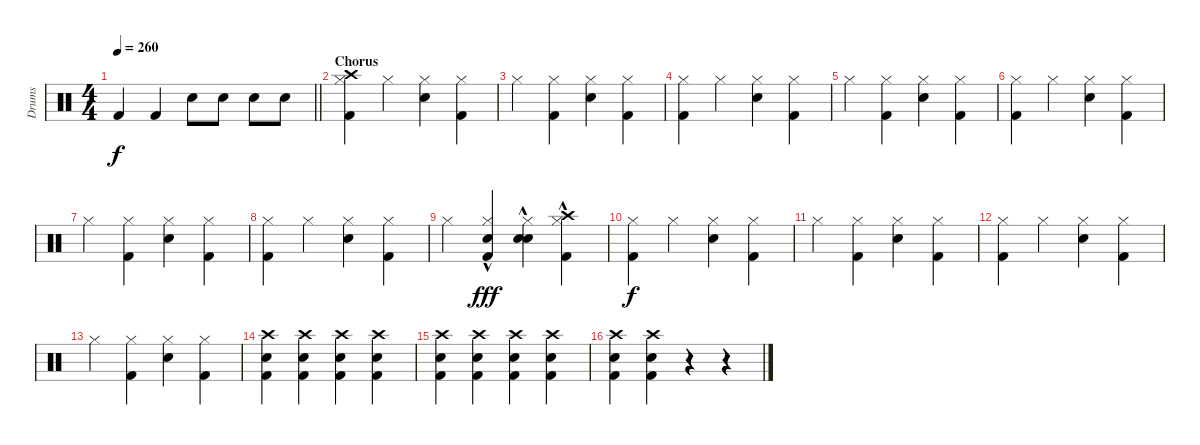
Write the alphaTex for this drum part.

\track ("Drums" "Drums") {instrument percussion bank 2}
\staff {score}
\articulation defaults
\ts (4 4)
\tempo 260
\clef neutral
\barLineRight lightlight
\ks c "Kick (hit) 2".4{dy f} "Kick (hit) 2".4 "Snare (hit) 2".8 "Snare (hit) 2".8 "Snare (hit) 2".8 "Snare (hit) 2".8
|
\section ("" "Chorus")
("Hi-Hat (closed)" "Kick (hit) 2" "Crash high (hit)").4 "Hi-Hat (closed)".4 ("Hi-Hat (closed)" "Snare (hit) 2").4 ("Hi-Hat (closed)" "Kick (hit) 2").4 |
"Hi-Hat (closed)".4 ("Hi-Hat (closed)" "Kick (hit) 2").4 ("Hi-Hat (closed)" "Snare (hit) 2").4 ("Hi-Hat (closed)" "Kick (hit) 2").4 |
("Hi-Hat (closed)" "Kick (hit) 2").4 "Hi-Hat (closed)".4 ("Hi-Hat (closed)" "Snare (hit) 2").4 ("Hi-Hat (closed)" "Kick (hit) 2").4 |
"Hi-Hat (closed)".4 ("Hi-Hat (closed)" "Kick (hit) 2").4 ("Hi-Hat (closed)" "Snare (hit) 2").4 ("Hi-Hat (closed)" "Kick (hit) 2").4 |
("Hi-Hat (closed)" "Kick (hit) 2").4 "Hi-Hat (closed)".4 ("Hi-Hat (closed)" "Snare (hit) 2").4 ("Hi-Hat (closed)" "Kick (hit) 2").4 |
"Hi-Hat (closed)".4 ("Hi-Hat (closed)" "Kick (hit) 2").4 ("Hi-Hat (closed)" "Snare (hit) 2").4 ("Hi-Hat (closed)" "Kick (hit) 2").4 |
("Hi-Hat (closed)" "Kick (hit) 2").4 "Hi-Hat (closed)".4 ("Hi-Hat (closed)" "Snare (hit) 2").4 ("Hi-Hat (closed)" "Kick (hit) 2").4 |
"Hi-Hat (closed)".4 ("Hi-Hat (closed)" "Kick (hit) 2" "Hand Clap (hit)"{hac}).4{dy fff} ("Hi-Hat (closed)" "Snare (hit) 2" "Hand Clap (hit)"{hac}).4 ("Hi-Hat (closed)" "Kick (hit) 2" "Crash high (hit)"{hac}).4 |
("Hi-Hat (closed)" "Kick (hit) 2").4{dy f} "Hi-Hat (closed)".4 ("Hi-Hat (closed)" "Snare (hit) 2").4 ("Hi-Hat (closed)" "Kick (hit) 2").4 |
"Hi-Hat (closed)".4 ("Hi-Hat (closed)" "Kick (hit) 2").4 ("Hi-Hat (closed)" "Snare (hit) 2").4 ("Hi-Hat (closed)" "Kick (hit) 2").4 |
("Hi-Hat (closed)" "Kick (hit) 2").4 "Hi-Hat (closed)".4 ("Hi-Hat (closed)" "Snare (hit) 2").4 ("Hi-Hat (closed)" "Kick (hit) 2").4 |
"Hi-Hat (closed)".4 ("Hi-Hat (closed)" "Kick (hit) 2").4 ("Hi-Hat (closed)" "Snare (hit) 2").4 ("Hi-Hat (closed)" "Kick (hit) 2").4 |
("Kick (hit) 2" "Snare (hit) 2" "Crash high (hit)").4 ("Kick (hit) 2" "Snare (hit) 2" "Crash high (hit)").4 ("Kick (hit) 2" "Snare (hit) 2" "Crash high (hit)").4 ("Kick (hit) 2" "Snare (hit) 2" "Crash high (hit)").4 |
("Kick (hit) 2" "Snare (hit) 2" "Crash high (hit)").4 ("Kick (hit) 2" "Snare (hit) 2" "Crash high (hit)").4 ("Kick (hit) 2" "Snare (hit) 2" "Crash high (hit)").4 ("Kick (hit) 2" "Snare (hit) 2" "Crash high (hit)").4 |
("Kick (hit) 2" "Crash high (hit)" "Snare (hit) 2").4 ("Kick (hit) 2" "Crash high (hit)" "Snare (hit) 2").4 r.4 r.4
